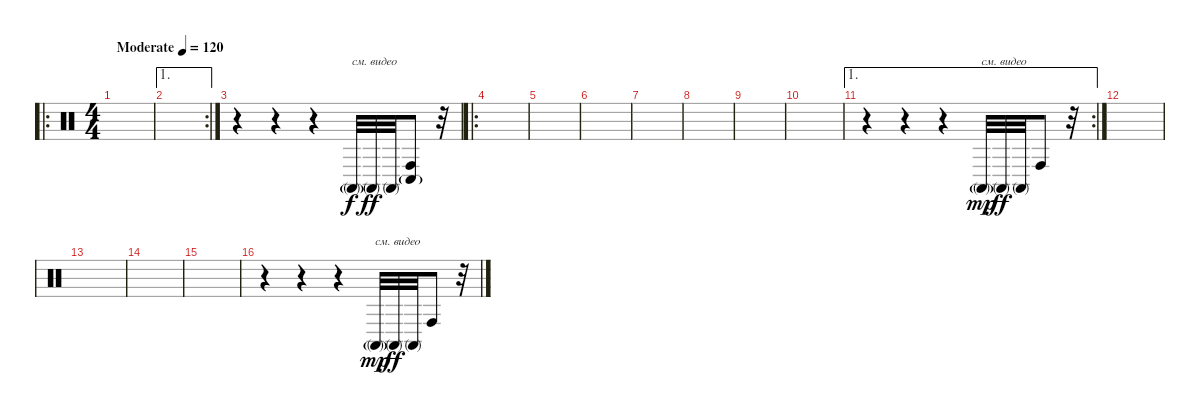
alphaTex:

\track "" {instrument percussion}
\staff {score}
\articulation defaults
\ro
\ts (4 4)
\tempo (120 "Moderate")
\clef neutral
\ks c
|
\ae 1
\rc 2
|
r.4 r.4 r.4 "Conga high (mute)"{g}.32{txt "см. видео"} "Conga high (mute)".32{dy ff} "Conga high (mute)".32 ("Conga low (hit)"{g} "Conga high (hit)").8 r.32 |
\ro
|
|
|
|
|
|
|
\ae 1
\rc 2
r.4 r.4 r.4 "Conga high (mute)"{g}.32{txt "см. видео" dy mp} "Conga high (mute)".32{dy ff} "Conga high (mute)".32 "Conga high (hit)".8 r.32 |
|
|
|
|
r.4 r.4 r.4 "Conga high (mute)"{g}.32{txt "см. видео" dy mp} "Conga high (mute)".32{dy ff} "Conga high (mute)".32 "Conga high (hit)".8 r.32
